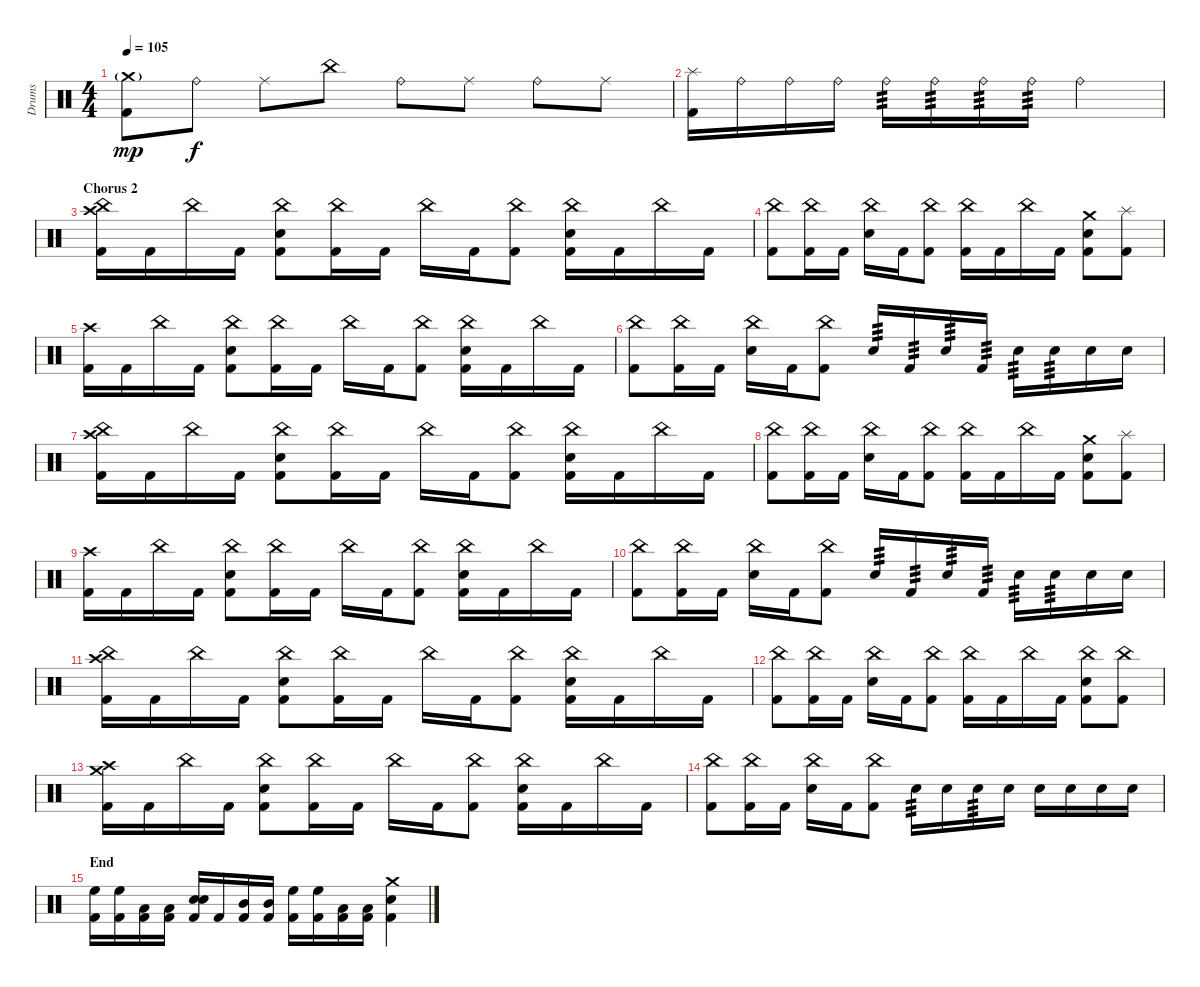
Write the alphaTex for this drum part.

\track ("Drums" "Drums") {instrument percussion}
\staff {score}
\articulation defaults
\ts (4 4)
\tempo 105
\clef neutral
\ks c
("Crash medium (hit)"{g} "Kick (hit) 2").8{dy mp} "Ride (bell)".8{dy f} "Ride (middle)".8 "China (hit)".8 "Ride (bell)".8 "Ride (middle)".8 "Ride (bell)".8 "Ride (middle)".8 |
("Splash (hit)" "Kick (hit) 2").16 "Ride (bell)".16 "Ride (bell)".16 "Ride (bell)".16 "Ride (bell)".16{tp 3} "Ride (bell)".16{tp 3} "Ride (bell)".16{tp 3} "Ride (bell)".16{tp 3} "Ride (bell)".2 |
\section ("" "Chorus 2")
("China (hit)" "Crash high (hit)" "Kick (hit) 2").16 "Kick (hit) 2".16 "China (hit)".16 "Kick (hit) 2".16 ("China (hit)" "Snare (hit) 2" "Kick (hit) 2").8 ("China (hit)" "Kick (hit) 2").16 "Kick (hit) 2".16 "China (hit)".16 "Kick (hit) 2".16 ("China (hit)" "Kick (hit) 2").8 ("China (hit)" "Snare (hit) 2" "Kick (hit) 2").16 "Kick (hit) 2".16 "China (hit)".16 "Kick (hit) 2".16 |
("China (hit)" "Kick (hit) 2").8 ("China (hit)" "Kick (hit) 2").16 "Kick (hit) 2".16 ("China (hit)" "Snare (hit) 2").16 "Kick (hit) 2".16 ("China (hit)" "Kick (hit) 2").8 ("China (hit)" "Kick (hit) 2").16 "Kick (hit) 2".16 "China (hit)".16 "Kick (hit) 2".16 ("Crash medium (hit)" "Snare (hit) 2" "Kick (hit) 2").8 ("Splash (hit)" "Kick (hit) 2").8 |
("Crash high (hit)" "Kick (hit) 2").16 "Kick (hit) 2".16 "China (hit)".16 "Kick (hit) 2".16 ("China (hit)" "Snare (hit) 2" "Kick (hit) 2").8 ("China (hit)" "Kick (hit) 2").16 "Kick (hit) 2".16 "China (hit)".16 "Kick (hit) 2".16 ("China (hit)" "Kick (hit) 2").8 ("China (hit)" "Snare (hit) 2" "Kick (hit) 2").16 "Kick (hit) 2".16 "China (hit)".16 "Kick (hit) 2".16 |
("China (hit)" "Kick (hit) 2").8 ("China (hit)" "Kick (hit) 2").16 "Kick (hit) 2".16 ("China (hit)" "Snare (hit) 2").16 "Kick (hit) 2".16 ("China (hit)" "Kick (hit) 2").8 "Snare (hit) 2".16{tp 3} "Kick (hit) 2".16{tp 3} "Snare (hit) 2".16{tp 3} "Kick (hit) 2".16{tp 3} "Snare (hit) 2".16{tp 3} "Snare (hit) 2".16{tp 3} "Snare (hit) 2".16 "Snare (hit) 2".16 |
("China (hit)" "Crash high (hit)" "Kick (hit) 2").16 "Kick (hit) 2".16 "China (hit)".16 "Kick (hit) 2".16 ("China (hit)" "Snare (hit) 2" "Kick (hit) 2").8 ("China (hit)" "Kick (hit) 2").16 "Kick (hit) 2".16 "China (hit)".16 "Kick (hit) 2".16 ("China (hit)" "Kick (hit) 2").8 ("China (hit)" "Snare (hit) 2" "Kick (hit) 2").16 "Kick (hit) 2".16 "China (hit)".16 "Kick (hit) 2".16 |
("China (hit)" "Kick (hit) 2").8 ("China (hit)" "Kick (hit) 2").16 "Kick (hit) 2".16 ("China (hit)" "Snare (hit) 2").16 "Kick (hit) 2".16 ("China (hit)" "Kick (hit) 2").8 ("China (hit)" "Kick (hit) 2").16 "Kick (hit) 2".16 "China (hit)".16 "Kick (hit) 2".16 ("Crash medium (hit)" "Snare (hit) 2" "Kick (hit) 2").8 ("Splash (hit)" "Kick (hit) 2").8 |
("Crash high (hit)" "Kick (hit) 2").16 "Kick (hit) 2".16 "China (hit)".16 "Kick (hit) 2".16 ("China (hit)" "Snare (hit) 2" "Kick (hit) 2").8 ("China (hit)" "Kick (hit) 2").16 "Kick (hit) 2".16 "China (hit)".16 "Kick (hit) 2".16 ("China (hit)" "Kick (hit) 2").8 ("China (hit)" "Snare (hit) 2" "Kick (hit) 2").16 "Kick (hit) 2".16 "China (hit)".16 "Kick (hit) 2".16 |
("China (hit)" "Kick (hit) 2").8 ("China (hit)" "Kick (hit) 2").16 "Kick (hit) 2".16 ("China (hit)" "Snare (hit) 2").16 "Kick (hit) 2".16 ("China (hit)" "Kick (hit) 2").8 "Snare (hit) 2".16{tp 3} "Kick (hit) 2".16{tp 3} "Snare (hit) 2".16{tp 3} "Kick (hit) 2".16{tp 3} "Snare (hit) 2".16{tp 3} "Snare (hit) 2".16{tp 3} "Snare (hit) 2".16 "Snare (hit) 2".16 |
("China (hit)" "Crash high (hit)" "Kick (hit) 2").16 "Kick (hit) 2".16 "China (hit)".16 "Kick (hit) 2".16 ("China (hit)" "Snare (hit) 2" "Kick (hit) 2").8 ("China (hit)" "Kick (hit) 2").16 "Kick (hit) 2".16 "China (hit)".16 "Kick (hit) 2".16 ("China (hit)" "Kick (hit) 2").8 ("China (hit)" "Snare (hit) 2" "Kick (hit) 2").16 "Kick (hit) 2".16 "China (hit)".16 "Kick (hit) 2".16 |
("China (hit)" "Kick (hit) 2").8 ("China (hit)" "Kick (hit) 2").16 "Kick (hit) 2".16 ("China (hit)" "Snare (hit) 2").16 "Kick (hit) 2".16 ("China (hit)" "Kick (hit) 2").8 ("China (hit)" "Kick (hit) 2").16 "Kick (hit) 2".16 "China (hit)".16 "Kick (hit) 2".16 ("China (hit)" "Snare (hit) 2" "Kick (hit) 2").8 ("China (hit)" "Kick (hit) 2").8 |
("Crash high (hit)" "Crash medium (hit)" "Kick (hit) 2").16 "Kick (hit) 2".16 "China (hit)".16 "Kick (hit) 2".16 ("China (hit)" "Snare (hit) 2" "Kick (hit) 2").8 ("China (hit)" "Kick (hit) 2").16 "Kick (hit) 2".16 "China (hit)".16 "Kick (hit) 2".16 ("China (hit)" "Kick (hit) 2").8 ("China (hit)" "Snare (hit) 2" "Kick (hit) 2").16 "Kick (hit) 2".16 "China (hit)".16 "Kick (hit) 2".16 |
("China (hit)" "Kick (hit) 2").8 ("China (hit)" "Kick (hit) 2").16 "Kick (hit) 2".16 ("China (hit)" "Snare (hit) 2").16 "Kick (hit) 2".16 ("China (hit)" "Kick (hit) 2").8 "Snare (hit) 2".16{tp 3} "Snare (hit) 2".16 "Snare (hit) 2".16{tp 3} "Snare (hit) 2".16 "Snare (hit) 2".16 "Snare (hit) 2".16 "Snare (hit) 2".16 "Snare (hit) 2".16 |
\section ("" "End")
("High Floor Tom (hit)" "Kick (hit) 2").16 ("High Floor Tom (hit)" "Kick (hit) 2").16 ("Low Tom (hit)" "Kick (hit) 2").16 ("Low Tom (hit)" "Kick (hit) 2").16 ("Snare (hit) 2" "Snare (hit) 2" "Kick (hit) 2").16 "Kick (hit) 2".16 ("Mid Tom (hit)" "Kick (hit) 2").16 ("Mid Tom (hit)" "Kick (hit) 2").16 ("High Floor Tom (hit)" "Kick (hit) 2").16 ("High Floor Tom (hit)" "Kick (hit) 2").16 ("Low Tom (hit)" "Kick (hit) 2").16 ("Low Tom (hit)" "Kick (hit) 2").16 ("Crash medium (hit)" "Snare (hit) 2" "Kick (hit) 2").4
